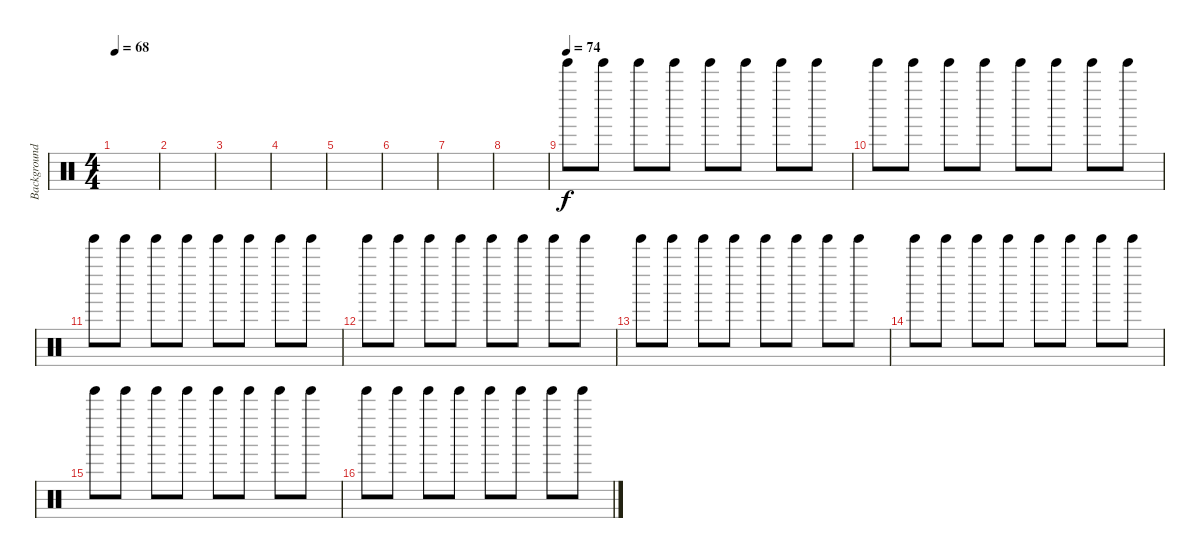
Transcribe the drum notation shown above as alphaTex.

\track ("Background Percussion" "Background") {instrument percussion}
\staff {score}
\articulation defaults
\ts (4 4)
\tempo 68
\clef neutral
\ks c
|
|
|
|
|
|
|
|
\tempo (74)
"Tinkle Bell (hit)".8 "Tinkle Bell (hit)".8 "Tinkle Bell (hit)".8 "Tinkle Bell (hit)".8 "Tinkle Bell (hit)".8 "Tinkle Bell (hit)".8 "Tinkle Bell (hit)".8 "Tinkle Bell (hit)".8 |
"Tinkle Bell (hit)".8 "Tinkle Bell (hit)".8 "Tinkle Bell (hit)".8 "Tinkle Bell (hit)".8 "Tinkle Bell (hit)".8 "Tinkle Bell (hit)".8 "Tinkle Bell (hit)".8 "Tinkle Bell (hit)".8 |
"Tinkle Bell (hit)".8 "Tinkle Bell (hit)".8 "Tinkle Bell (hit)".8 "Tinkle Bell (hit)".8 "Tinkle Bell (hit)".8 "Tinkle Bell (hit)".8 "Tinkle Bell (hit)".8 "Tinkle Bell (hit)".8 |
"Tinkle Bell (hit)".8 "Tinkle Bell (hit)".8 "Tinkle Bell (hit)".8 "Tinkle Bell (hit)".8 "Tinkle Bell (hit)".8 "Tinkle Bell (hit)".8 "Tinkle Bell (hit)".8 "Tinkle Bell (hit)".8 |
"Tinkle Bell (hit)".8 "Tinkle Bell (hit)".8 "Tinkle Bell (hit)".8 "Tinkle Bell (hit)".8 "Tinkle Bell (hit)".8 "Tinkle Bell (hit)".8 "Tinkle Bell (hit)".8 "Tinkle Bell (hit)".8 |
"Tinkle Bell (hit)".8 "Tinkle Bell (hit)".8 "Tinkle Bell (hit)".8 "Tinkle Bell (hit)".8 "Tinkle Bell (hit)".8 "Tinkle Bell (hit)".8 "Tinkle Bell (hit)".8 "Tinkle Bell (hit)".8 |
"Tinkle Bell (hit)".8 "Tinkle Bell (hit)".8 "Tinkle Bell (hit)".8 "Tinkle Bell (hit)".8 "Tinkle Bell (hit)".8 "Tinkle Bell (hit)".8 "Tinkle Bell (hit)".8 "Tinkle Bell (hit)".8 |
"Tinkle Bell (hit)".8 "Tinkle Bell (hit)".8 "Tinkle Bell (hit)".8 "Tinkle Bell (hit)".8 "Tinkle Bell (hit)".8 "Tinkle Bell (hit)".8 "Tinkle Bell (hit)".8 "Tinkle Bell (hit)".8
